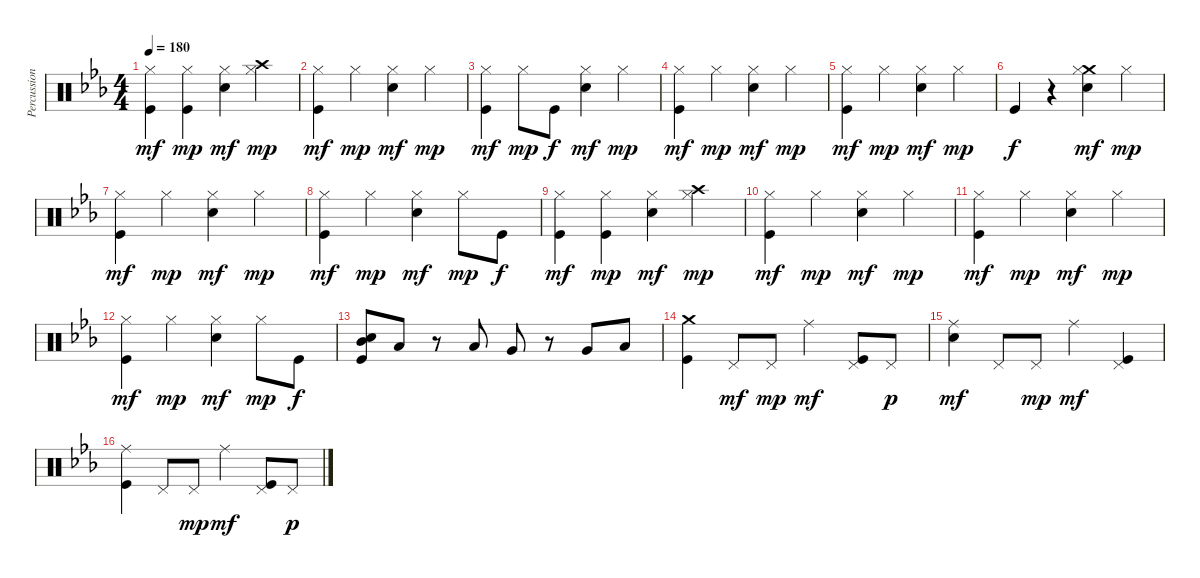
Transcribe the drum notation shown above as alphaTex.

\track ("Percussion" "Percussion") {instrument percussion}
\staff {score}
\articulation defaults
\ts (4 4)
\tempo 180
\clef neutral
\ks cminor
("Hi-Hat (closed)" "Kick (hit)").4{dy mf} ("Hi-Hat (closed)" "Kick (hit)").4{dy mp} ("Hi-Hat (closed)" "Snare (hit) 2").4{dy mf} ("Crash high (hit)" "Hi-Hat (closed)").4{dy mp} |
("Hi-Hat (closed)" "Kick (hit)").4{dy mf} "Hi-Hat (closed)".4{dy mp} ("Hi-Hat (closed)" "Snare (hit) 2").4{dy mf} "Hi-Hat (closed)".4{dy mp} |
("Hi-Hat (closed)" "Kick (hit)").4{dy mf} "Hi-Hat (closed)".8{dy mp} "Kick (hit)".8{dy f} ("Hi-Hat (closed)" "Snare (hit) 2").4{dy mf} "Hi-Hat (closed)".4{dy mp} |
("Hi-Hat (closed)" "Kick (hit)").4{dy mf} "Hi-Hat (closed)".4{dy mp} ("Hi-Hat (closed)" "Snare (hit) 2").4{dy mf} "Hi-Hat (closed)".4{dy mp} |
("Hi-Hat (closed)" "Kick (hit)").4{dy mf} "Hi-Hat (closed)".4{dy mp} ("Hi-Hat (closed)" "Snare (hit) 2").4{dy mf} "Hi-Hat (closed)".4{dy mp} |
"Kick (hit)".4{dy f} r.4 ("Crash medium (hit)" "Hi-Hat (closed)" "Snare (hit) 2").4{dy mf} "Hi-Hat (closed)".4{dy mp} |
("Hi-Hat (closed)" "Kick (hit)").4{dy mf} "Hi-Hat (closed)".4{dy mp} ("Hi-Hat (closed)" "Snare (hit) 2").4{dy mf} "Hi-Hat (closed)".4{dy mp} |
("Hi-Hat (closed)" "Kick (hit)").4{dy mf} "Hi-Hat (closed)".4{dy mp} ("Hi-Hat (closed)" "Snare (hit) 2").4{dy mf} "Hi-Hat (closed)".8{dy mp} "Kick (hit)".8{dy f} |
("Hi-Hat (closed)" "Kick (hit)").4{dy mf} ("Hi-Hat (closed)" "Kick (hit)").4{dy mp} ("Hi-Hat (closed)" "Snare (hit) 2").4{dy mf} ("Crash high (hit)" "Hi-Hat (closed)").4{dy mp} |
("Hi-Hat (closed)" "Kick (hit)").4{dy mf} "Hi-Hat (closed)".4{dy mp} ("Hi-Hat (closed)" "Snare (hit) 2").4{dy mf} "Hi-Hat (closed)".4{dy mp} |
("Hi-Hat (closed)" "Kick (hit)").4{dy mf} "Hi-Hat (closed)".4{dy mp} ("Hi-Hat (closed)" "Snare (hit) 2").4{dy mf} "Hi-Hat (closed)".4{dy mp} |
("Hi-Hat (closed)" "Kick (hit)").4{dy mf} "Hi-Hat (closed)".4{dy mp} ("Hi-Hat (closed)" "Snare (hit) 2").4{dy mf} "Hi-Hat (closed)".8{dy mp} "Kick (hit)".8{dy f} |
("Mid Tom (hit)" "Snare (hit) 2" "Kick (hit)").8 "Low Tom (hit)".8 r.8 "Low Tom (hit)".8 "Very Low Tom (hit)".8 r.8 "Very Low Tom (hit)".8 "Low Floor Tom (hit)".8 |
("Crash medium (hit)" "Kick (hit)").4 "Pedal Hi-Hat (hit)".8{dy mf} "Pedal Hi-Hat (hit)".8{dy mp} "Ride (middle)".4{dy mf} ("Pedal Hi-Hat (hit)" "Kick (hit)").8 "Pedal Hi-Hat (hit)".8{dy p} |
("Ride (middle)" "Snare (hit) 2").4{dy mf} "Pedal Hi-Hat (hit)".8 "Pedal Hi-Hat (hit)".8{dy mp} "Ride (middle)".4{dy mf} ("Pedal Hi-Hat (hit)" "Kick (hit)").4 |
("Ride (middle)" "Kick (hit)").4 "Pedal Hi-Hat (hit)".8 "Pedal Hi-Hat (hit)".8{dy mp} "Ride (middle)".4{dy mf} ("Pedal Hi-Hat (hit)" "Kick (hit)").8 "Pedal Hi-Hat (hit)".8{dy p}
